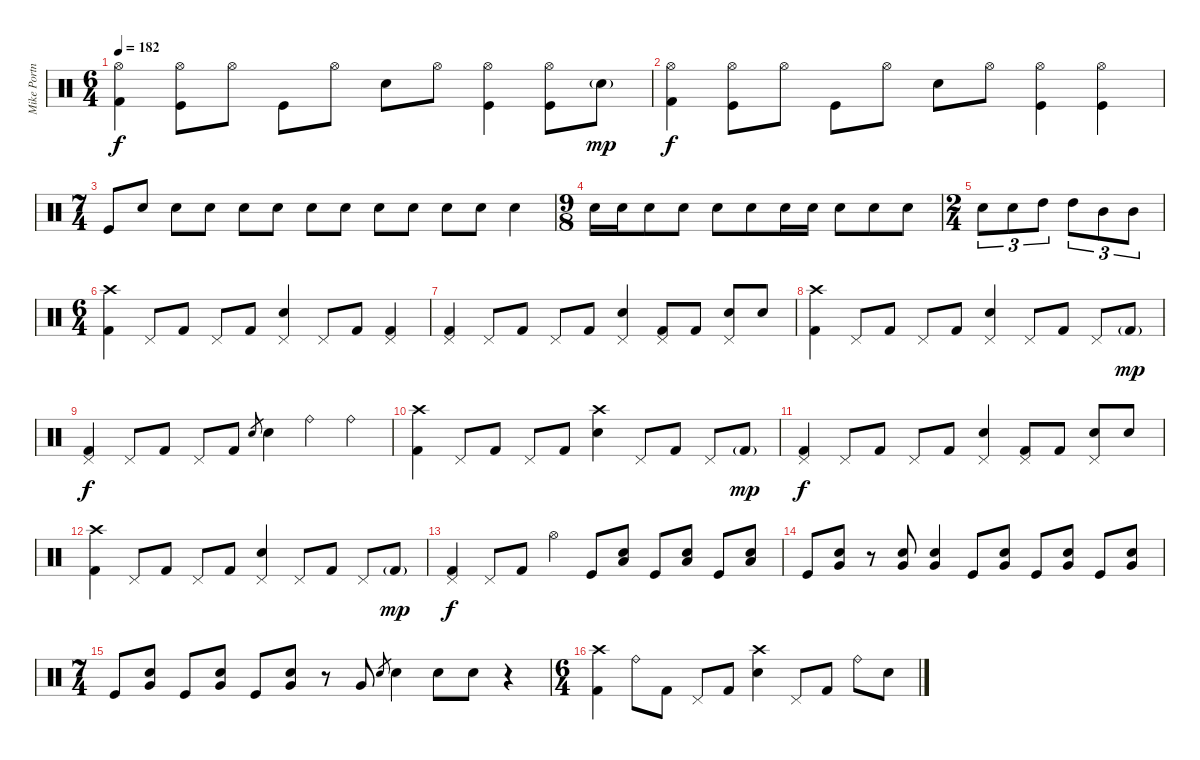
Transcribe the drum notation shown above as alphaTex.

\track ("Mike Portnoy" "Mike Portn") {instrument percussion}
\staff {score}
\articulation defaults
\ts (6 4)
\tempo 182
\clef neutral
\ks c
("Hi-Hat (open)" "Kick (hit) 2").4{dy f} ("Hi-Hat (open)" "Kick (hit)").8 "Hi-Hat (open)".8 "Kick (hit)".8 "Hi-Hat (open)".8 "Electric Snare (hit)".8 "Hi-Hat (open)".8 ("Hi-Hat (open)" "Kick (hit)").4 ("Hi-Hat (open)" "Kick (hit)").8 "Electric Snare (hit)"{g}.8{dy mp} |
("Hi-Hat (open)" "Kick (hit) 2").4{dy f} ("Hi-Hat (open)" "Kick (hit)").8 "Hi-Hat (open)".8 "Kick (hit)".8 "Hi-Hat (open)".8 "Electric Snare (hit)".8 "Hi-Hat (open)".8 ("Hi-Hat (open)" "Kick (hit)").4 ("Hi-Hat (open)" "Kick (hit)").4 |
\ts (7 4)
"Kick (hit)".8 "Electric Snare (hit)".8 "Electric Snare (hit)".8 "Electric Snare (hit)".8 "Electric Snare (hit)".8 "Electric Snare (hit)".8 "Electric Snare (hit)".8 "Electric Snare (hit)".8 "Electric Snare (hit)".8 "Electric Snare (hit)".8 "Electric Snare (hit)".8 "Electric Snare (hit)".8 "Electric Snare (hit)".4 |
\ts (9 8)
"Electric Snare (hit)".16 "Electric Snare (hit)".16 "Electric Snare (hit)".8 "Electric Snare (hit)".8 "Electric Snare (hit)".8 "Electric Snare (hit)".8 "Electric Snare (hit)".16 "Electric Snare (hit)".16 "Electric Snare (hit)".8 "Electric Snare (hit)".8 "Electric Snare (hit)".8 |
\ts (2 4)
"Electric Snare (hit)".8{tu (3 2)} "Electric Snare (hit)".8{tu (3 2)} "High Tom (hit)".8{tu (3 2)} "High Tom (hit)".8{tu (3 2)} "Mid Tom (hit)".8{tu (3 2)} "Mid Tom (hit)".8{tu (3 2)} |
\ts (6 4)
("Crash high (hit)" "Kick (hit) 2").4 "Pedal Hi-Hat (hit)".8 "Kick (hit) 2".8 "Pedal Hi-Hat (hit)".8 "Kick (hit) 2".8 ("Pedal Hi-Hat (hit)" "Electric Snare (hit)").4 "Pedal Hi-Hat (hit)".8 "Kick (hit) 2".8 ("Pedal Hi-Hat (hit)" "Kick (hit) 2").4 |
("Pedal Hi-Hat (hit)" "Kick (hit) 2").4 "Pedal Hi-Hat (hit)".8 "Kick (hit) 2".8 "Pedal Hi-Hat (hit)".8 "Kick (hit) 2".8 ("Pedal Hi-Hat (hit)" "Electric Snare (hit)").4 ("Pedal Hi-Hat (hit)" "Kick (hit) 2").8 "Kick (hit) 2".8 ("Pedal Hi-Hat (hit)" "Electric Snare (hit)").8 "Electric Snare (hit)".8 |
("Crash high (hit)" "Kick (hit) 2").4 "Pedal Hi-Hat (hit)".8 "Kick (hit) 2".8 "Pedal Hi-Hat (hit)".8 "Kick (hit) 2".8 ("Pedal Hi-Hat (hit)" "Electric Snare (hit)").4 "Pedal Hi-Hat (hit)".8 "Kick (hit) 2".8 "Pedal Hi-Hat (hit)".8 "Kick (hit) 2"{g}.8{dy mp} |
("Pedal Hi-Hat (hit)" "Kick (hit) 2").4{dy f} "Pedal Hi-Hat (hit)".8 "Kick (hit) 2".8 "Pedal Hi-Hat (hit)".8 "Kick (hit) 2".8 "Electric Snare (hit)".8{gr} "Electric Snare (hit)".4 "Ride (bell)".4 "Ride (bell)".4 |
("Crash high (hit)" "Kick (hit) 2").4 "Pedal Hi-Hat (hit)".8 "Kick (hit) 2".8 "Pedal Hi-Hat (hit)".8 "Kick (hit) 2".8 ("Crash high (hit)" "Electric Snare (hit)").4 "Pedal Hi-Hat (hit)".8 "Kick (hit) 2".8 "Pedal Hi-Hat (hit)".8 "Kick (hit) 2"{g}.8{dy mp} |
("Pedal Hi-Hat (hit)" "Kick (hit) 2").4{dy f} "Pedal Hi-Hat (hit)".8 "Kick (hit) 2".8 "Pedal Hi-Hat (hit)".8 "Kick (hit) 2".8 ("Pedal Hi-Hat (hit)" "Electric Snare (hit)").4 ("Pedal Hi-Hat (hit)" "Kick (hit) 2").8 "Kick (hit) 2".8 ("Pedal Hi-Hat (hit)" "Electric Snare (hit)").8 "Electric Snare (hit)".8 |
("Crash high (hit)" "Kick (hit) 2").4 "Pedal Hi-Hat (hit)".8 "Kick (hit) 2".8 "Pedal Hi-Hat (hit)".8 "Kick (hit) 2".8 ("Pedal Hi-Hat (hit)" "Electric Snare (hit)").4 "Pedal Hi-Hat (hit)".8 "Kick (hit) 2".8 "Pedal Hi-Hat (hit)".8 "Kick (hit) 2"{g}.8{dy mp} |
("Pedal Hi-Hat (hit)" "Kick (hit) 2").4{dy f} "Pedal Hi-Hat (hit)".8 "Kick (hit) 2".8 "Hi-Hat (open)".4 "Kick (hit)".8 ("Electric Snare (hit)" "Low Floor Tom (hit)").8 "Kick (hit)".8 ("Electric Snare (hit)" "Low Floor Tom (hit)").8 "Kick (hit)".8 ("Electric Snare (hit)" "Low Floor Tom (hit)").8 |
"Kick (hit)".8 ("Electric Snare (hit)" "Very Low Tom (hit)").8 r.8 ("Electric Snare (hit)" "Very Low Tom (hit)").8 ("Electric Snare (hit)" "Very Low Tom (hit)").4 "Kick (hit)".8 ("Electric Snare (hit)" "Very Low Tom (hit)").8 "Kick (hit)".8 ("Electric Snare (hit)" "Very Low Tom (hit)").8 "Kick (hit)".8 ("Electric Snare (hit)" "Very Low Tom (hit)").8 |
\ts (7 4)
"Kick (hit)".8 ("Electric Snare (hit)" "Very Low Tom (hit)").8 "Kick (hit)".8 ("Electric Snare (hit)" "Very Low Tom (hit)").8 "Kick (hit)".8 ("Electric Snare (hit)" "Very Low Tom (hit)").8 r.8 "Very Low Tom (hit)".8 "Electric Snare (hit)".8{gr} "Electric Snare (hit)".4 "Electric Snare (hit)".8 "Electric Snare (hit)".8 r.4 |
\ts (6 4)
("Crash high (hit)" "Kick (hit) 2").4 "Ride (bell)".8 "Kick (hit) 2".8 "Pedal Hi-Hat (hit)".8 "Kick (hit) 2".8 ("Crash high (hit)" "Electric Snare (hit)").4 "Pedal Hi-Hat (hit)".8 "Kick (hit) 2".8 "Ride (bell)".8 "Electric Snare (hit)".8
